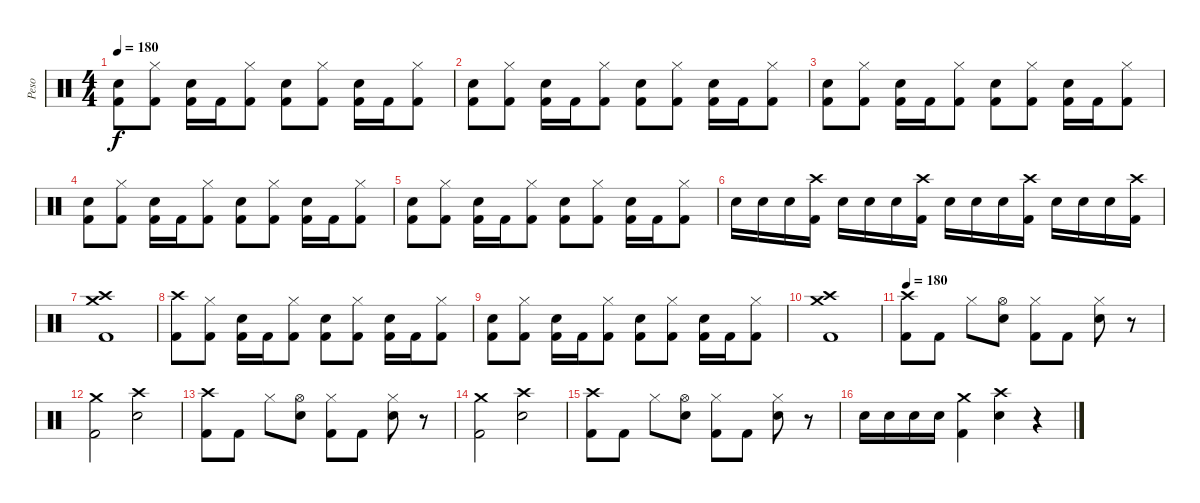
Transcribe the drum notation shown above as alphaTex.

\track ("Peso" "Peso") {instrument percussion}
\staff {score}
\articulation defaults
\ts (4 4)
\tempo 180
\clef neutral
\ks c
("Snare (hit) 2" "Kick (hit) 2").8{dy f} ("Hi-Hat (closed)" "Kick (hit) 2").8 ("Snare (hit) 2" "Kick (hit) 2").16 "Kick (hit) 2".16 ("Hi-Hat (closed)" "Kick (hit) 2").8 ("Snare (hit) 2" "Kick (hit) 2").8 ("Hi-Hat (closed)" "Kick (hit) 2").8 ("Snare (hit) 2" "Kick (hit) 2").16 "Kick (hit) 2".16 ("Hi-Hat (closed)" "Kick (hit) 2").8 |
("Snare (hit) 2" "Kick (hit) 2").8 ("Hi-Hat (closed)" "Kick (hit) 2").8 ("Snare (hit) 2" "Kick (hit) 2").16 "Kick (hit) 2".16 ("Hi-Hat (closed)" "Kick (hit) 2").8 ("Snare (hit) 2" "Kick (hit) 2").8 ("Hi-Hat (closed)" "Kick (hit) 2").8 ("Snare (hit) 2" "Kick (hit) 2").16 "Kick (hit) 2".16 ("Hi-Hat (closed)" "Kick (hit) 2").8 |
("Snare (hit) 2" "Kick (hit) 2").8 ("Hi-Hat (closed)" "Kick (hit) 2").8 ("Snare (hit) 2" "Kick (hit) 2").16 "Kick (hit) 2".16 ("Hi-Hat (closed)" "Kick (hit) 2").8 ("Snare (hit) 2" "Kick (hit) 2").8 ("Hi-Hat (closed)" "Kick (hit) 2").8 ("Snare (hit) 2" "Kick (hit) 2").16 "Kick (hit) 2".16 ("Hi-Hat (closed)" "Kick (hit) 2").8 |
("Snare (hit) 2" "Kick (hit) 2").8 ("Hi-Hat (closed)" "Kick (hit) 2").8 ("Snare (hit) 2" "Kick (hit) 2").16 "Kick (hit) 2".16 ("Hi-Hat (closed)" "Kick (hit) 2").8 ("Snare (hit) 2" "Kick (hit) 2").8 ("Hi-Hat (closed)" "Kick (hit) 2").8 ("Snare (hit) 2" "Kick (hit) 2").16 "Kick (hit) 2".16 ("Hi-Hat (closed)" "Kick (hit) 2").8 |
("Snare (hit) 2" "Kick (hit) 2").8 ("Hi-Hat (closed)" "Kick (hit) 2").8 ("Snare (hit) 2" "Kick (hit) 2").16 "Kick (hit) 2".16 ("Hi-Hat (closed)" "Kick (hit) 2").8 ("Snare (hit) 2" "Kick (hit) 2").8 ("Hi-Hat (closed)" "Kick (hit) 2").8 ("Snare (hit) 2" "Kick (hit) 2").16 "Kick (hit) 2".16 ("Hi-Hat (closed)" "Kick (hit) 2").8 |
"Snare (hit) 2".16 "Snare (hit) 2".16 "Snare (hit) 2".16 ("Crash high (hit)" "Kick (hit) 2").16 "Snare (hit) 2".16 "Snare (hit) 2".16 "Snare (hit) 2".16 ("Crash high (hit)" "Kick (hit) 2").16 "Snare (hit) 2".16 "Snare (hit) 2".16 "Snare (hit) 2".16 ("Crash high (hit)" "Kick (hit) 2").16 "Snare (hit) 2".16 "Snare (hit) 2".16 "Snare (hit) 2".16 ("Crash high (hit)" "Kick (hit) 2").16 |
("Crash high (hit)" "Crash medium (hit)" "Kick (hit) 2").1 |
("Crash high (hit)" "Kick (hit) 2").8 ("Hi-Hat (closed)" "Kick (hit) 2").8 ("Snare (hit) 2" "Kick (hit) 2").16 "Kick (hit) 2".16 ("Hi-Hat (closed)" "Kick (hit) 2").8 ("Snare (hit) 2" "Kick (hit) 2").8 ("Hi-Hat (closed)" "Kick (hit) 2").8 ("Snare (hit) 2" "Kick (hit) 2").16 "Kick (hit) 2".16 ("Hi-Hat (closed)" "Kick (hit) 2").8 |
("Snare (hit) 2" "Kick (hit) 2").8 ("Hi-Hat (closed)" "Kick (hit) 2").8 ("Snare (hit) 2" "Kick (hit) 2").16 "Kick (hit) 2".16 ("Hi-Hat (closed)" "Kick (hit) 2").8 ("Snare (hit) 2" "Kick (hit) 2").8 ("Hi-Hat (closed)" "Kick (hit) 2").8 ("Snare (hit) 2" "Kick (hit) 2").16 "Kick (hit) 2".16 ("Hi-Hat (closed)" "Kick (hit) 2").8 |
("Crash high (hit)" "Crash medium (hit)" "Kick (hit) 2").1 |
\tempo 180
("Crash high (hit)" "Kick (hit) 2").8 "Kick (hit) 2".8 "Hi-Hat (closed)".8 ("Hi-Hat (open)" "Snare (hit) 2").8 ("Hi-Hat (closed)" "Kick (hit) 2").8 "Kick (hit) 2".8 ("Hi-Hat (closed)" "Snare (hit) 2").8 r.8 |
("Crash medium (hit)" "Kick (hit) 2").2 ("Crash high (hit)" "Snare (hit) 2").2 |
("Crash high (hit)" "Kick (hit) 2").8 "Kick (hit) 2".8 "Hi-Hat (closed)".8 ("Hi-Hat (open)" "Snare (hit) 2").8 ("Hi-Hat (closed)" "Kick (hit) 2").8 "Kick (hit) 2".8 ("Hi-Hat (closed)" "Snare (hit) 2").8 r.8 |
("Crash medium (hit)" "Kick (hit) 2").2 ("Crash high (hit)" "Snare (hit) 2").2 |
("Crash high (hit)" "Kick (hit) 2").8 "Kick (hit) 2".8 "Hi-Hat (closed)".8 ("Hi-Hat (open)" "Snare (hit) 2").8 ("Hi-Hat (closed)" "Kick (hit) 2").8 "Kick (hit) 2".8 ("Hi-Hat (closed)" "Snare (hit) 2").8 r.8 |
"Snare (hit) 2".16 "Snare (hit) 2".16 "Snare (hit) 2".16 "Snare (hit) 2".16 ("Crash medium (hit)" "Kick (hit) 2").4 ("Crash high (hit)" "Snare (hit) 2").4 r.4
